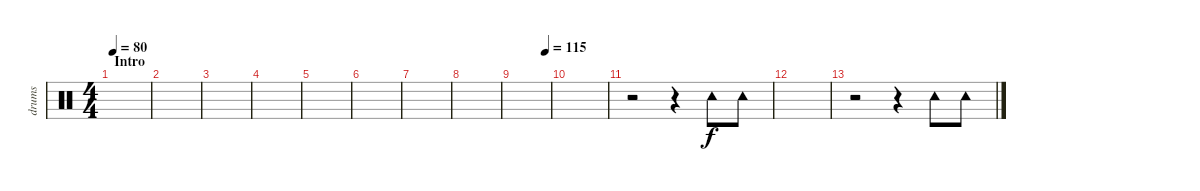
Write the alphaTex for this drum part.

\track ("drums" "drums") {instrument percussion}
\staff {score}
\articulation defaults
\ts (4 4)
\section ("" "Intro")
\tempo 80
\clef neutral
\ks c
|
|
|
|
|
|
|
|
\tempo (115 0.875)
|
|
r.2 r.4 "Tambourine (hit)".8 "Tambourine (hit)".8 |
|
r.2 r.4 "Tambourine (hit)".8 "Tambourine (hit)".8
